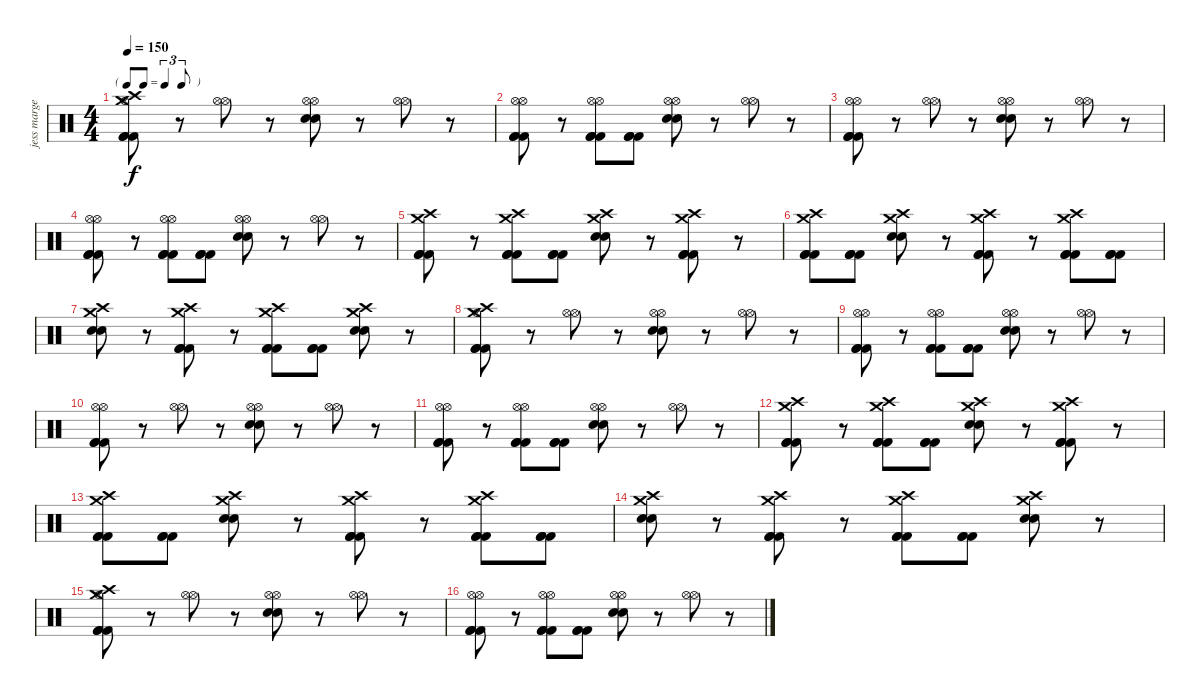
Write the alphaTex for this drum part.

\track ("jess margera" "jess marge") {instrument percussion}
\staff {score}
\articulation defaults
\ts (4 4)
\tf triplet8th
\tempo 150
\clef neutral
\ks c
("Hi-Hat (open)" "Crash high (hit)" "Crash medium (hit)" "Kick (hit) 2" "Kick (hit) 2" "Kick (hit) 2").8{dy f} r.8 ("Hi-Hat (open)" "Hi-Hat (open)").8 r.8 ("Hi-Hat (open)" "Hi-Hat (open)" "Electric Snare (hit)" "Electric Snare (hit)").8 r.8 ("Hi-Hat (open)" "Hi-Hat (open)").8 r.8 |
("Hi-Hat (open)" "Hi-Hat (open)" "Kick (hit) 2" "Kick (hit) 2" "Kick (hit) 2").8 r.8 ("Hi-Hat (open)" "Hi-Hat (open)" "Kick (hit) 2" "Kick (hit) 2" "Kick (hit) 2").8 ("Kick (hit) 2" "Kick (hit) 2" "Kick (hit) 2").8 ("Hi-Hat (open)" "Hi-Hat (open)" "Electric Snare (hit)" "Electric Snare (hit)").8 r.8 ("Hi-Hat (open)" "Hi-Hat (open)").8 r.8 |
("Hi-Hat (open)" "Hi-Hat (open)" "Kick (hit) 2" "Kick (hit) 2" "Kick (hit) 2").8 r.8 ("Hi-Hat (open)" "Hi-Hat (open)").8 r.8 ("Hi-Hat (open)" "Hi-Hat (open)" "Electric Snare (hit)" "Electric Snare (hit)").8 r.8 ("Hi-Hat (open)" "Hi-Hat (open)").8 r.8 |
("Hi-Hat (open)" "Hi-Hat (open)" "Kick (hit) 2" "Kick (hit) 2" "Kick (hit) 2").8 r.8 ("Hi-Hat (open)" "Hi-Hat (open)" "Kick (hit) 2" "Kick (hit) 2" "Kick (hit) 2").8 ("Kick (hit) 2" "Kick (hit) 2" "Kick (hit) 2").8 ("Hi-Hat (open)" "Hi-Hat (open)" "Electric Snare (hit)" "Electric Snare (hit)").8 r.8 ("Hi-Hat (open)" "Hi-Hat (open)").8 r.8 |
("Crash high (hit)" "Crash medium (hit)" "Kick (hit) 2" "Kick (hit) 2" "Kick (hit) 2").8 r.8 ("Crash high (hit)" "Crash medium (hit)" "Kick (hit) 2" "Kick (hit) 2" "Kick (hit) 2").8 ("Kick (hit) 2" "Kick (hit) 2" "Kick (hit) 2").8 ("Crash high (hit)" "Crash medium (hit)" "Electric Snare (hit)" "Electric Snare (hit)").8 r.8 ("Crash high (hit)" "Crash medium (hit)" "Kick (hit) 2" "Kick (hit) 2" "Kick (hit) 2").8 r.8 |
("Crash high (hit)" "Crash medium (hit)" "Kick (hit) 2" "Kick (hit) 2" "Kick (hit) 2").8 ("Kick (hit) 2" "Kick (hit) 2" "Kick (hit) 2").8 ("Crash high (hit)" "Crash medium (hit)" "Electric Snare (hit)" "Electric Snare (hit)").8 r.8 ("Crash high (hit)" "Crash medium (hit)" "Kick (hit) 2" "Kick (hit) 2" "Kick (hit) 2").8 r.8 ("Crash high (hit)" "Crash medium (hit)" "Kick (hit) 2" "Kick (hit) 2" "Kick (hit) 2").8 ("Kick (hit) 2" "Kick (hit) 2" "Kick (hit) 2").8 |
("Crash high (hit)" "Crash medium (hit)" "Electric Snare (hit)" "Electric Snare (hit)").8 r.8 ("Crash high (hit)" "Crash medium (hit)" "Kick (hit) 2" "Kick (hit) 2" "Kick (hit) 2").8 r.8 ("Crash high (hit)" "Crash medium (hit)" "Kick (hit) 2" "Kick (hit) 2" "Kick (hit) 2").8 ("Kick (hit) 2" "Kick (hit) 2" "Kick (hit) 2").8 ("Crash high (hit)" "Crash medium (hit)" "Electric Snare (hit)" "Electric Snare (hit)").8 r.8 |
("Hi-Hat (open)" "Crash high (hit)" "Crash medium (hit)" "Kick (hit) 2" "Kick (hit) 2" "Kick (hit) 2").8 r.8 ("Hi-Hat (open)" "Hi-Hat (open)").8 r.8 ("Hi-Hat (open)" "Hi-Hat (open)" "Electric Snare (hit)" "Electric Snare (hit)").8 r.8 ("Hi-Hat (open)" "Hi-Hat (open)").8 r.8 |
("Hi-Hat (open)" "Hi-Hat (open)" "Kick (hit) 2" "Kick (hit) 2" "Kick (hit) 2").8 r.8 ("Hi-Hat (open)" "Hi-Hat (open)" "Kick (hit) 2" "Kick (hit) 2" "Kick (hit) 2").8 ("Kick (hit) 2" "Kick (hit) 2" "Kick (hit) 2").8 ("Hi-Hat (open)" "Hi-Hat (open)" "Electric Snare (hit)" "Electric Snare (hit)").8 r.8 ("Hi-Hat (open)" "Hi-Hat (open)").8 r.8 |
("Hi-Hat (open)" "Hi-Hat (open)" "Kick (hit) 2" "Kick (hit) 2" "Kick (hit) 2").8 r.8 ("Hi-Hat (open)" "Hi-Hat (open)").8 r.8 ("Hi-Hat (open)" "Hi-Hat (open)" "Electric Snare (hit)" "Electric Snare (hit)").8 r.8 ("Hi-Hat (open)" "Hi-Hat (open)").8 r.8 |
("Hi-Hat (open)" "Hi-Hat (open)" "Kick (hit) 2" "Kick (hit) 2" "Kick (hit) 2").8 r.8 ("Hi-Hat (open)" "Hi-Hat (open)" "Kick (hit) 2" "Kick (hit) 2" "Kick (hit) 2").8 ("Kick (hit) 2" "Kick (hit) 2" "Kick (hit) 2").8 ("Hi-Hat (open)" "Hi-Hat (open)" "Electric Snare (hit)" "Electric Snare (hit)").8 r.8 ("Hi-Hat (open)" "Hi-Hat (open)").8 r.8 |
("Crash high (hit)" "Crash medium (hit)" "Kick (hit) 2" "Kick (hit) 2" "Kick (hit) 2").8 r.8 ("Crash high (hit)" "Crash medium (hit)" "Kick (hit) 2" "Kick (hit) 2" "Kick (hit) 2").8 ("Kick (hit) 2" "Kick (hit) 2" "Kick (hit) 2").8 ("Crash high (hit)" "Crash medium (hit)" "Electric Snare (hit)" "Electric Snare (hit)").8 r.8 ("Crash high (hit)" "Crash medium (hit)" "Kick (hit) 2" "Kick (hit) 2" "Kick (hit) 2").8 r.8 |
("Crash high (hit)" "Crash medium (hit)" "Kick (hit) 2" "Kick (hit) 2" "Kick (hit) 2").8 ("Kick (hit) 2" "Kick (hit) 2" "Kick (hit) 2").8 ("Crash high (hit)" "Crash medium (hit)" "Electric Snare (hit)" "Electric Snare (hit)").8 r.8 ("Crash high (hit)" "Crash medium (hit)" "Kick (hit) 2" "Kick (hit) 2" "Kick (hit) 2").8 r.8 ("Crash high (hit)" "Crash medium (hit)" "Kick (hit) 2" "Kick (hit) 2" "Kick (hit) 2").8 ("Kick (hit) 2" "Kick (hit) 2" "Kick (hit) 2").8 |
("Crash high (hit)" "Crash medium (hit)" "Electric Snare (hit)" "Electric Snare (hit)").8 r.8 ("Crash high (hit)" "Crash medium (hit)" "Kick (hit) 2" "Kick (hit) 2" "Kick (hit) 2").8 r.8 ("Crash high (hit)" "Crash medium (hit)" "Kick (hit) 2" "Kick (hit) 2" "Kick (hit) 2").8 ("Kick (hit) 2" "Kick (hit) 2" "Kick (hit) 2").8 ("Crash high (hit)" "Crash medium (hit)" "Electric Snare (hit)" "Electric Snare (hit)").8 r.8 |
("Hi-Hat (open)" "Crash high (hit)" "Crash medium (hit)" "Kick (hit) 2" "Kick (hit) 2" "Kick (hit) 2").8 r.8 ("Hi-Hat (open)" "Hi-Hat (open)").8 r.8 ("Hi-Hat (open)" "Hi-Hat (open)" "Electric Snare (hit)" "Electric Snare (hit)").8 r.8 ("Hi-Hat (open)" "Hi-Hat (open)").8 r.8 |
("Hi-Hat (open)" "Hi-Hat (open)" "Kick (hit) 2" "Kick (hit) 2" "Kick (hit) 2").8 r.8 ("Hi-Hat (open)" "Hi-Hat (open)" "Kick (hit) 2" "Kick (hit) 2" "Kick (hit) 2").8 ("Kick (hit) 2" "Kick (hit) 2" "Kick (hit) 2").8 ("Hi-Hat (open)" "Hi-Hat (open)" "Electric Snare (hit)" "Electric Snare (hit)").8 r.8 ("Hi-Hat (open)" "Hi-Hat (open)").8 r.8
